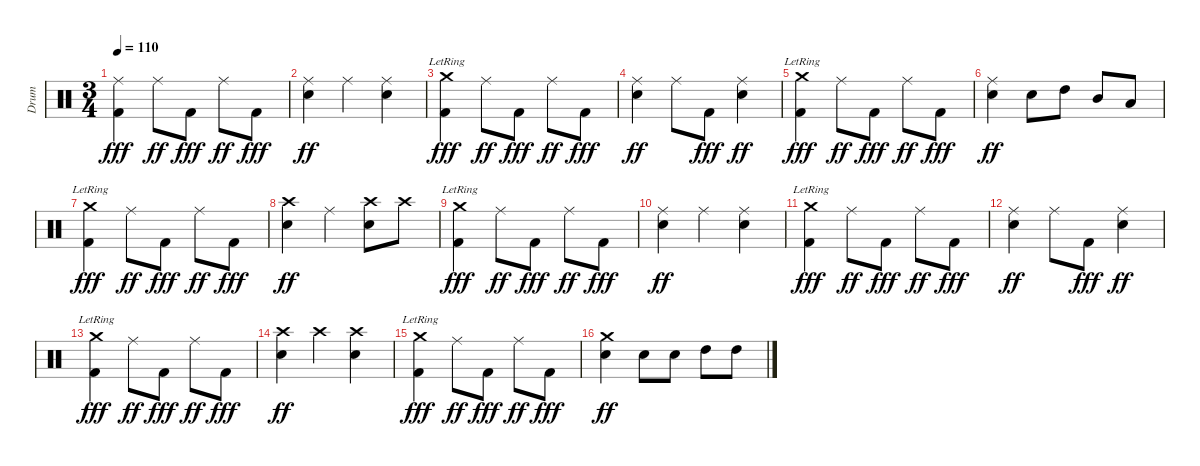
\track ("Drum" "Drum") {instrument percussion}
\staff {score}
\articulation defaults
\ts (3 4)
\tempo 110
\clef neutral
\ks c
("Ride (middle)" "Kick (hit) 2").4{dy fff} "Ride (middle)".8{dy ff} "Kick (hit) 2".8{dy fff} "Ride (middle)".8{dy ff} "Kick (hit) 2".8{dy fff} |
("Ride (middle)" "Snare (hit) 2").4{dy ff} "Ride (middle)".4 ("Ride (middle)" "Snare (hit) 2").4 |
("Crash medium (hit)"{lr} "Kick (hit) 2").4{dy fff} "Ride (middle)".8{dy ff} "Kick (hit) 2".8{dy fff} "Ride (middle)".8{dy ff} "Kick (hit) 2".8{dy fff} |
("Ride (middle)" "Snare (hit) 2").4{dy ff} "Ride (middle)".8 "Kick (hit) 2".8{dy fff} ("Ride (middle)" "Snare (hit) 2").4{dy ff} |
("Crash medium (hit)"{lr} "Kick (hit) 2").4{dy fff} "Ride (middle)".8{dy ff} "Kick (hit) 2".8{dy fff} "Ride (middle)".8{dy ff} "Kick (hit) 2".8{dy fff} |
("Ride (middle)" "Snare (hit) 2").4{dy ff} "Snare (hit) 2".8 "High Tom (hit)".8 "Mid Tom (hit)".8 "Low Tom (hit)".8 |
("Crash medium (hit)"{lr} "Kick (hit) 2").4{dy fff} "Ride (middle)".8{dy ff} "Kick (hit) 2".8{dy fff} "Ride (middle)".8{dy ff} "Kick (hit) 2".8{dy fff} |
("Crash high (hit)" "Snare (hit) 2").4{dy ff} "Ride (middle)".4 ("Crash high (hit)" "Snare (hit) 2").8 "Crash high (hit)".8 |
("Crash medium (hit)"{lr} "Kick (hit) 2").4{dy fff} "Ride (middle)".8{dy ff} "Kick (hit) 2".8{dy fff} "Ride (middle)".8{dy ff} "Kick (hit) 2".8{dy fff} |
("Ride (middle)" "Snare (hit) 2").4{dy ff} "Ride (middle)".4 ("Ride (middle)" "Snare (hit) 2").4 |
("Crash medium (hit)"{lr} "Kick (hit) 2").4{dy fff} "Ride (middle)".8{dy ff} "Kick (hit) 2".8{dy fff} "Ride (middle)".8{dy ff} "Kick (hit) 2".8{dy fff} |
("Ride (middle)" "Snare (hit) 2").4{dy ff} "Ride (middle)".8 "Kick (hit) 2".8{dy fff} ("Ride (middle)" "Snare (hit) 2").4{dy ff} |
("Crash medium (hit)"{lr} "Kick (hit) 2").4{dy fff} "Ride (middle)".8{dy ff} "Kick (hit) 2".8{dy fff} "Ride (middle)".8{dy ff} "Kick (hit) 2".8{dy fff} |
("Crash high (hit)" "Snare (hit) 2").4{dy ff} "Crash high (hit)".4 ("Crash high (hit)" "Snare (hit) 2").4 |
("Crash medium (hit)"{lr} "Kick (hit) 2").4{dy fff} "Ride (middle)".8{dy ff} "Kick (hit) 2".8{dy fff} "Ride (middle)".8{dy ff} "Kick (hit) 2".8{dy fff} |
("Crash medium (hit)" "Snare (hit) 2").4{dy ff} "Snare (hit) 2".8 "Snare (hit) 2".8 "High Tom (hit)".8 "High Tom (hit)".8
